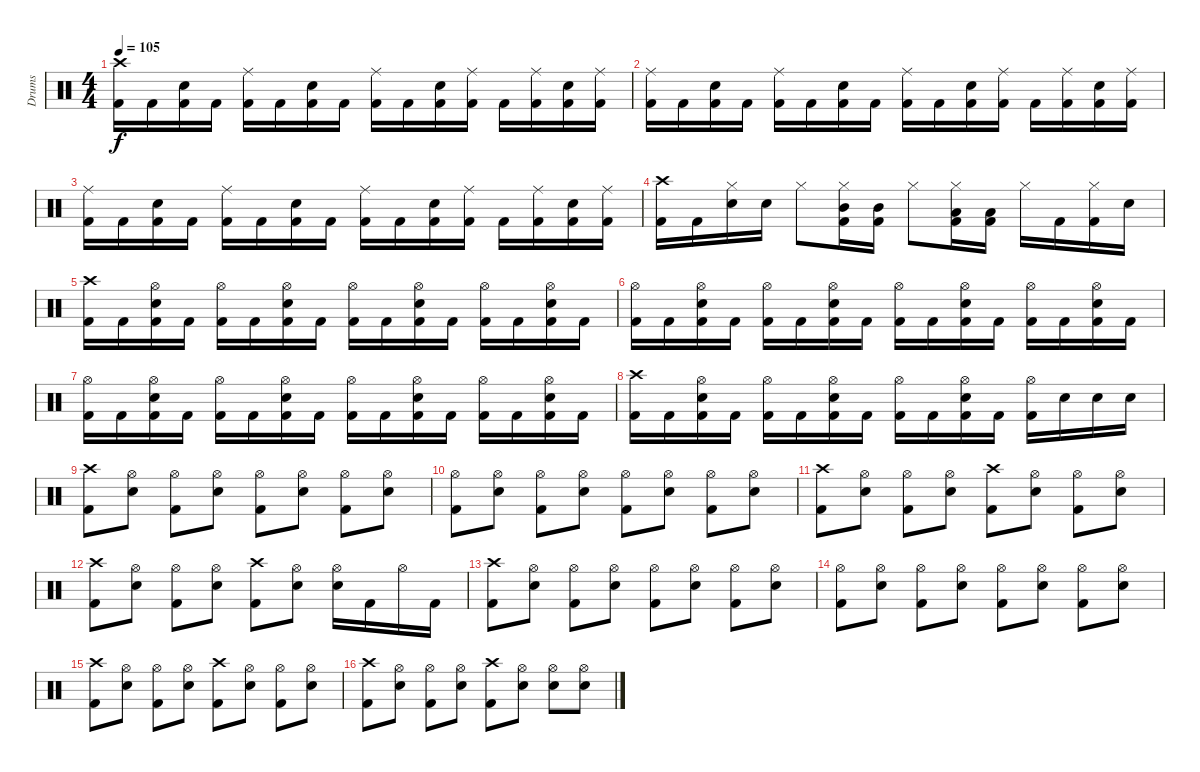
\track ("Drums" "Drums") {instrument percussion}
\staff {score}
\articulation defaults
\ts (4 4)
\tempo 105
\clef neutral
\ks c
("Crash high (hit)" "Kick (hit) 2").16{dy f} "Kick (hit) 2".16 ("Electric Snare (hit)" "Kick (hit) 2").16 "Kick (hit) 2".16 ("Ride (middle)" "Kick (hit) 2").16 "Kick (hit) 2".16 ("Electric Snare (hit)" "Kick (hit) 2").16 "Kick (hit) 2".16 ("Ride (middle)" "Kick (hit) 2").16 "Kick (hit) 2".16 ("Electric Snare (hit)" "Kick (hit) 2").16 ("Ride (middle)" "Kick (hit) 2").16 "Kick (hit) 2".16 ("Ride (middle)" "Kick (hit) 2").16 ("Electric Snare (hit)" "Kick (hit) 2").16 ("Ride (middle)" "Kick (hit) 2").16 |
("Ride (middle)" "Kick (hit) 2").16 "Kick (hit) 2".16 ("Electric Snare (hit)" "Kick (hit) 2").16 "Kick (hit) 2".16 ("Ride (middle)" "Kick (hit) 2").16 "Kick (hit) 2".16 ("Electric Snare (hit)" "Kick (hit) 2").16 "Kick (hit) 2".16 ("Ride (middle)" "Kick (hit) 2").16 "Kick (hit) 2".16 ("Electric Snare (hit)" "Kick (hit) 2").16 ("Ride (middle)" "Kick (hit) 2").16 "Kick (hit) 2".16 ("Ride (middle)" "Kick (hit) 2").16 ("Electric Snare (hit)" "Kick (hit) 2").16 ("Ride (middle)" "Kick (hit) 2").16 |
("Ride (middle)" "Kick (hit) 2").16 "Kick (hit) 2".16 ("Electric Snare (hit)" "Kick (hit) 2").16 "Kick (hit) 2".16 ("Ride (middle)" "Kick (hit) 2").16 "Kick (hit) 2".16 ("Electric Snare (hit)" "Kick (hit) 2").16 "Kick (hit) 2".16 ("Ride (middle)" "Kick (hit) 2").16 "Kick (hit) 2".16 ("Electric Snare (hit)" "Kick (hit) 2").16 ("Ride (middle)" "Kick (hit) 2").16 "Kick (hit) 2".16 ("Ride (middle)" "Kick (hit) 2").16 ("Electric Snare (hit)" "Kick (hit) 2").16 ("Ride (middle)" "Kick (hit) 2").16 |
("Crash high (hit)" "Kick (hit) 2").16 "Kick (hit) 2".16 ("Hi-Hat (closed)" "Electric Snare (hit)").16 "Electric Snare (hit)".16 "Hi-Hat (closed)".8 ("Hi-Hat (closed)" "Mid Tom (hit)" "Kick (hit) 2").16 ("Mid Tom (hit)" "Kick (hit) 2").16 "Hi-Hat (closed)".8 ("Hi-Hat (closed)" "Low Tom (hit)" "Kick (hit) 2").16 ("Low Tom (hit)" "Kick (hit) 2").16 "Hi-Hat (closed)".16 "Kick (hit) 2".16 ("Hi-Hat (closed)" "Kick (hit) 2").16 "Electric Snare (hit)".16 |
("Crash high (hit)" "Kick (hit) 2").16 "Kick (hit) 2".16 ("Hi-Hat (open)" "Electric Snare (hit)" "Kick (hit) 2").16 "Kick (hit) 2".16 ("Hi-Hat (open)" "Kick (hit) 2").16 "Kick (hit) 2".16 ("Hi-Hat (open)" "Electric Snare (hit)" "Kick (hit) 2").16 "Kick (hit) 2".16 ("Hi-Hat (open)" "Kick (hit) 2").16 "Kick (hit) 2".16 ("Hi-Hat (open)" "Electric Snare (hit)" "Kick (hit) 2").16 "Kick (hit) 2".16 ("Hi-Hat (open)" "Kick (hit) 2").16 "Kick (hit) 2".16 ("Hi-Hat (open)" "Electric Snare (hit)" "Kick (hit) 2").16 "Kick (hit) 2".16 |
("Hi-Hat (open)" "Kick (hit) 2").16 "Kick (hit) 2".16 ("Hi-Hat (open)" "Electric Snare (hit)" "Kick (hit) 2").16 "Kick (hit) 2".16 ("Hi-Hat (open)" "Kick (hit) 2").16 "Kick (hit) 2".16 ("Hi-Hat (open)" "Electric Snare (hit)" "Kick (hit) 2").16 "Kick (hit) 2".16 ("Hi-Hat (open)" "Kick (hit) 2").16 "Kick (hit) 2".16 ("Hi-Hat (open)" "Electric Snare (hit)" "Kick (hit) 2").16 "Kick (hit) 2".16 ("Hi-Hat (open)" "Kick (hit) 2").16 "Kick (hit) 2".16 ("Hi-Hat (open)" "Electric Snare (hit)" "Kick (hit) 2").16 "Kick (hit) 2".16 |
("Hi-Hat (open)" "Kick (hit) 2").16 "Kick (hit) 2".16 ("Hi-Hat (open)" "Electric Snare (hit)" "Kick (hit) 2").16 "Kick (hit) 2".16 ("Hi-Hat (open)" "Kick (hit) 2").16 "Kick (hit) 2".16 ("Hi-Hat (open)" "Electric Snare (hit)" "Kick (hit) 2").16 "Kick (hit) 2".16 ("Hi-Hat (open)" "Kick (hit) 2").16 "Kick (hit) 2".16 ("Hi-Hat (open)" "Electric Snare (hit)" "Kick (hit) 2").16 "Kick (hit) 2".16 ("Hi-Hat (open)" "Kick (hit) 2").16 "Kick (hit) 2".16 ("Hi-Hat (open)" "Electric Snare (hit)" "Kick (hit) 2").16 "Kick (hit) 2".16 |
("Crash high (hit)" "Kick (hit) 2").16 "Kick (hit) 2".16 ("Hi-Hat (open)" "Electric Snare (hit)" "Kick (hit) 2").16 "Kick (hit) 2".16 ("Hi-Hat (open)" "Kick (hit) 2").16 "Kick (hit) 2".16 ("Hi-Hat (open)" "Electric Snare (hit)" "Kick (hit) 2").16 "Kick (hit) 2".16 ("Hi-Hat (open)" "Kick (hit) 2").16 "Kick (hit) 2".16 ("Hi-Hat (open)" "Electric Snare (hit)" "Kick (hit) 2").16 "Kick (hit) 2".16 ("Hi-Hat (open)" "Kick (hit) 2").16 "Electric Snare (hit)".16 "Electric Snare (hit)".16 "Electric Snare (hit)".16 |
("Crash high (hit)" "Kick (hit) 2").8 ("Hi-Hat (open)" "Electric Snare (hit)").8 ("Hi-Hat (open)" "Kick (hit) 2").8 ("Hi-Hat (open)" "Electric Snare (hit)").8 ("Hi-Hat (open)" "Kick (hit) 2").8 ("Hi-Hat (open)" "Electric Snare (hit)").8 ("Hi-Hat (open)" "Kick (hit) 2").8 ("Hi-Hat (open)" "Electric Snare (hit)").8 |
("Hi-Hat (open)" "Kick (hit) 2").8 ("Hi-Hat (open)" "Electric Snare (hit)").8 ("Hi-Hat (open)" "Kick (hit) 2").8 ("Hi-Hat (open)" "Electric Snare (hit)").8 ("Hi-Hat (open)" "Kick (hit) 2").8 ("Hi-Hat (open)" "Electric Snare (hit)").8 ("Hi-Hat (open)" "Kick (hit) 2").8 ("Hi-Hat (open)" "Electric Snare (hit)").8 |
("Crash high (hit)" "Kick (hit) 2").8 ("Hi-Hat (open)" "Electric Snare (hit)").8 ("Hi-Hat (open)" "Kick (hit) 2").8 ("Hi-Hat (open)" "Electric Snare (hit)").8 ("Crash high (hit)" "Kick (hit) 2").8 ("Hi-Hat (open)" "Electric Snare (hit)").8 ("Hi-Hat (open)" "Kick (hit) 2").8 ("Hi-Hat (open)" "Electric Snare (hit)").8 |
("Crash high (hit)" "Kick (hit) 2").8 ("Hi-Hat (open)" "Electric Snare (hit)").8 ("Hi-Hat (open)" "Kick (hit) 2").8 ("Hi-Hat (open)" "Electric Snare (hit)").8 ("Crash high (hit)" "Kick (hit) 2").8 ("Hi-Hat (open)" "Electric Snare (hit)").8 ("Hi-Hat (open)" "Electric Snare (hit)").16 "Kick (hit) 2".16 "Hi-Hat (open)".16 "Kick (hit) 2".16 |
("Crash high (hit)" "Kick (hit) 2").8 ("Hi-Hat (open)" "Electric Snare (hit)").8 ("Hi-Hat (open)" "Kick (hit) 2").8 ("Hi-Hat (open)" "Electric Snare (hit)").8 ("Hi-Hat (open)" "Kick (hit) 2").8 ("Hi-Hat (open)" "Electric Snare (hit)").8 ("Hi-Hat (open)" "Kick (hit) 2").8 ("Hi-Hat (open)" "Electric Snare (hit)").8 |
("Hi-Hat (open)" "Kick (hit) 2").8 ("Hi-Hat (open)" "Electric Snare (hit)").8 ("Hi-Hat (open)" "Kick (hit) 2").8 ("Hi-Hat (open)" "Electric Snare (hit)").8 ("Hi-Hat (open)" "Kick (hit) 2").8 ("Hi-Hat (open)" "Electric Snare (hit)").8 ("Hi-Hat (open)" "Kick (hit) 2").8 ("Hi-Hat (open)" "Electric Snare (hit)").8 |
("Crash high (hit)" "Kick (hit) 2").8 ("Hi-Hat (open)" "Electric Snare (hit)").8 ("Hi-Hat (open)" "Kick (hit) 2").8 ("Hi-Hat (open)" "Electric Snare (hit)").8 ("Crash high (hit)" "Kick (hit) 2").8 ("Hi-Hat (open)" "Electric Snare (hit)").8 ("Hi-Hat (open)" "Kick (hit) 2").8 ("Hi-Hat (open)" "Electric Snare (hit)").8 |
("Crash high (hit)" "Kick (hit) 2").8 ("Hi-Hat (open)" "Electric Snare (hit)").8 ("Hi-Hat (open)" "Kick (hit) 2").8 ("Hi-Hat (open)" "Electric Snare (hit)").8 ("Crash high (hit)" "Kick (hit) 2").8 ("Hi-Hat (open)" "Electric Snare (hit)").8 ("Hi-Hat (open)" "Electric Snare (hit)").8 ("Hi-Hat (open)" "Electric Snare (hit)").8
